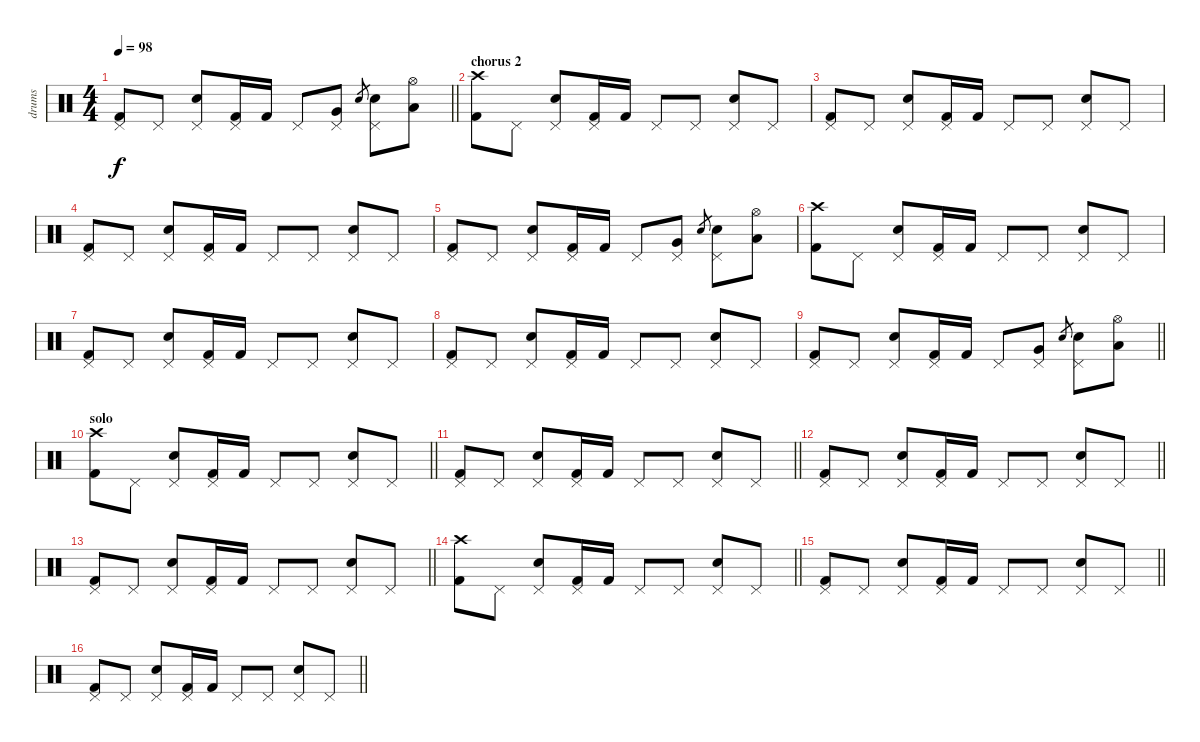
\track ("drums" "drums") {instrument percussion}
\staff {score}
\articulation defaults
\ts (4 4)
\tempo 98
\clef neutral
\barLineRight lightlight
\ks c
("Kick (hit) 2" "Pedal Hi-Hat (hit)").8{dy f} "Pedal Hi-Hat (hit)".8 ("Electric Snare (hit)" "Pedal Hi-Hat (hit)").8 ("Kick (hit) 2" "Pedal Hi-Hat (hit)").16 "Kick (hit) 2".16 "Pedal Hi-Hat (hit)".8 ("Very Low Tom (hit)" "Pedal Hi-Hat (hit)").8 "Electric Snare (hit)".8{gr} ("Electric Snare (hit)" "Pedal Hi-Hat (hit)").8 ("Low Tom (hit)" "Hi-Hat (open)").8 |
\section ("" "chorus 2")
("Kick (hit) 2" "Crash high (hit)").8 "Pedal Hi-Hat (hit)".8 ("Electric Snare (hit)" "Pedal Hi-Hat (hit)").8 ("Kick (hit) 2" "Pedal Hi-Hat (hit)").16 "Kick (hit) 2".16 "Pedal Hi-Hat (hit)".8 "Pedal Hi-Hat (hit)".8 ("Electric Snare (hit)" "Pedal Hi-Hat (hit)").8 "Pedal Hi-Hat (hit)".8 |
("Kick (hit) 2" "Pedal Hi-Hat (hit)").8 "Pedal Hi-Hat (hit)".8 ("Electric Snare (hit)" "Pedal Hi-Hat (hit)").8 ("Kick (hit) 2" "Pedal Hi-Hat (hit)").16 "Kick (hit) 2".16 "Pedal Hi-Hat (hit)".8 "Pedal Hi-Hat (hit)".8 ("Electric Snare (hit)" "Pedal Hi-Hat (hit)").8 "Pedal Hi-Hat (hit)".8 |
("Kick (hit) 2" "Pedal Hi-Hat (hit)").8 "Pedal Hi-Hat (hit)".8 ("Electric Snare (hit)" "Pedal Hi-Hat (hit)").8 ("Kick (hit) 2" "Pedal Hi-Hat (hit)").16 "Kick (hit) 2".16 "Pedal Hi-Hat (hit)".8 "Pedal Hi-Hat (hit)".8 ("Electric Snare (hit)" "Pedal Hi-Hat (hit)").8 "Pedal Hi-Hat (hit)".8 |
("Kick (hit) 2" "Pedal Hi-Hat (hit)").8 "Pedal Hi-Hat (hit)".8 ("Electric Snare (hit)" "Pedal Hi-Hat (hit)").8 ("Kick (hit) 2" "Pedal Hi-Hat (hit)").16 "Kick (hit) 2".16 "Pedal Hi-Hat (hit)".8 ("Very Low Tom (hit)" "Pedal Hi-Hat (hit)").8 "Electric Snare (hit)".8{gr} ("Electric Snare (hit)" "Pedal Hi-Hat (hit)").8 ("Low Tom (hit)" "Hi-Hat (open)").8 |
("Kick (hit) 2" "Crash high (hit)").8 "Pedal Hi-Hat (hit)".8 ("Electric Snare (hit)" "Pedal Hi-Hat (hit)").8 ("Kick (hit) 2" "Pedal Hi-Hat (hit)").16 "Kick (hit) 2".16 "Pedal Hi-Hat (hit)".8 "Pedal Hi-Hat (hit)".8 ("Electric Snare (hit)" "Pedal Hi-Hat (hit)").8 "Pedal Hi-Hat (hit)".8 |
("Kick (hit) 2" "Pedal Hi-Hat (hit)").8 "Pedal Hi-Hat (hit)".8 ("Electric Snare (hit)" "Pedal Hi-Hat (hit)").8 ("Kick (hit) 2" "Pedal Hi-Hat (hit)").16 "Kick (hit) 2".16 "Pedal Hi-Hat (hit)".8 "Pedal Hi-Hat (hit)".8 ("Electric Snare (hit)" "Pedal Hi-Hat (hit)").8 "Pedal Hi-Hat (hit)".8 |
("Kick (hit) 2" "Pedal Hi-Hat (hit)").8 "Pedal Hi-Hat (hit)".8 ("Electric Snare (hit)" "Pedal Hi-Hat (hit)").8 ("Kick (hit) 2" "Pedal Hi-Hat (hit)").16 "Kick (hit) 2".16 "Pedal Hi-Hat (hit)".8 "Pedal Hi-Hat (hit)".8 ("Electric Snare (hit)" "Pedal Hi-Hat (hit)").8 "Pedal Hi-Hat (hit)".8 |
\barLineRight lightlight
("Kick (hit) 2" "Pedal Hi-Hat (hit)").8 "Pedal Hi-Hat (hit)".8 ("Electric Snare (hit)" "Pedal Hi-Hat (hit)").8 ("Kick (hit) 2" "Pedal Hi-Hat (hit)").16 "Kick (hit) 2".16 "Pedal Hi-Hat (hit)".8 ("Very Low Tom (hit)" "Pedal Hi-Hat (hit)").8 "Electric Snare (hit)".8{gr} ("Electric Snare (hit)" "Pedal Hi-Hat (hit)").8 ("Low Tom (hit)" "Hi-Hat (open)").8 |
\section ("" "solo ")
\barLineRight lightlight
("Kick (hit) 2" "Crash high (hit)").8 "Pedal Hi-Hat (hit)".8 ("Electric Snare (hit)" "Pedal Hi-Hat (hit)").8 ("Kick (hit) 2" "Pedal Hi-Hat (hit)").16 "Kick (hit) 2".16 "Pedal Hi-Hat (hit)".8 "Pedal Hi-Hat (hit)".8 ("Electric Snare (hit)" "Pedal Hi-Hat (hit)").8 "Pedal Hi-Hat (hit)".8 |
\barLineRight lightlight
("Kick (hit) 2" "Pedal Hi-Hat (hit)").8 "Pedal Hi-Hat (hit)".8 ("Electric Snare (hit)" "Pedal Hi-Hat (hit)").8 ("Kick (hit) 2" "Pedal Hi-Hat (hit)").16 "Kick (hit) 2".16 "Pedal Hi-Hat (hit)".8 "Pedal Hi-Hat (hit)".8 ("Electric Snare (hit)" "Pedal Hi-Hat (hit)").8 "Pedal Hi-Hat (hit)".8 |
\barLineRight lightlight
("Kick (hit) 2" "Pedal Hi-Hat (hit)").8 "Pedal Hi-Hat (hit)".8 ("Electric Snare (hit)" "Pedal Hi-Hat (hit)").8 ("Kick (hit) 2" "Pedal Hi-Hat (hit)").16 "Kick (hit) 2".16 "Pedal Hi-Hat (hit)".8 "Pedal Hi-Hat (hit)".8 ("Electric Snare (hit)" "Pedal Hi-Hat (hit)").8 "Pedal Hi-Hat (hit)".8 |
\barLineRight lightlight
("Kick (hit) 2" "Pedal Hi-Hat (hit)").8 "Pedal Hi-Hat (hit)".8 ("Electric Snare (hit)" "Pedal Hi-Hat (hit)").8 ("Kick (hit) 2" "Pedal Hi-Hat (hit)").16 "Kick (hit) 2".16 "Pedal Hi-Hat (hit)".8 "Pedal Hi-Hat (hit)".8 ("Electric Snare (hit)" "Pedal Hi-Hat (hit)").8 "Pedal Hi-Hat (hit)".8 |
\barLineRight lightlight
("Kick (hit) 2" "Crash high (hit)").8 "Pedal Hi-Hat (hit)".8 ("Electric Snare (hit)" "Pedal Hi-Hat (hit)").8 ("Kick (hit) 2" "Pedal Hi-Hat (hit)").16 "Kick (hit) 2".16 "Pedal Hi-Hat (hit)".8 "Pedal Hi-Hat (hit)".8 ("Electric Snare (hit)" "Pedal Hi-Hat (hit)").8 "Pedal Hi-Hat (hit)".8 |
\barLineRight lightlight
("Kick (hit) 2" "Pedal Hi-Hat (hit)").8 "Pedal Hi-Hat (hit)".8 ("Electric Snare (hit)" "Pedal Hi-Hat (hit)").8 ("Kick (hit) 2" "Pedal Hi-Hat (hit)").16 "Kick (hit) 2".16 "Pedal Hi-Hat (hit)".8 "Pedal Hi-Hat (hit)".8 ("Electric Snare (hit)" "Pedal Hi-Hat (hit)").8 "Pedal Hi-Hat (hit)".8 |
\barLineRight lightlight
("Kick (hit) 2" "Pedal Hi-Hat (hit)").8 "Pedal Hi-Hat (hit)".8 ("Electric Snare (hit)" "Pedal Hi-Hat (hit)").8 ("Kick (hit) 2" "Pedal Hi-Hat (hit)").16 "Kick (hit) 2".16 "Pedal Hi-Hat (hit)".8 "Pedal Hi-Hat (hit)".8 ("Electric Snare (hit)" "Pedal Hi-Hat (hit)").8 "Pedal Hi-Hat (hit)".8
